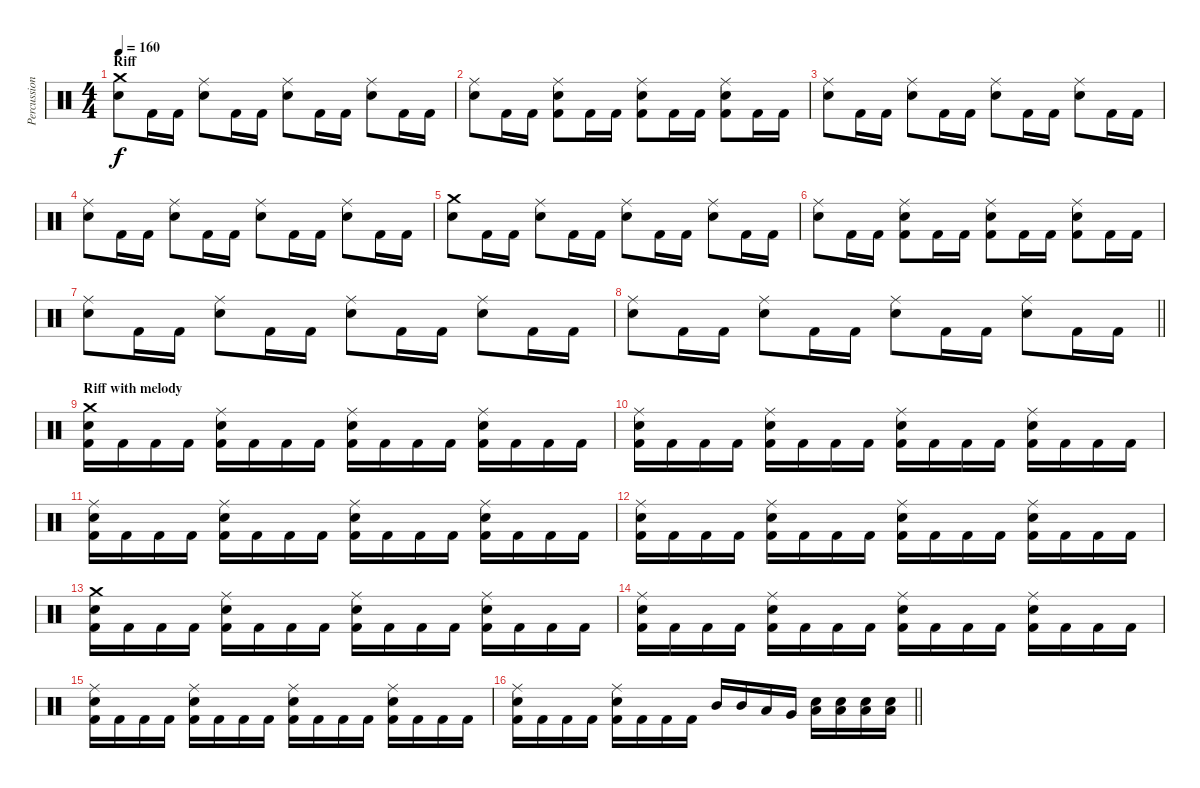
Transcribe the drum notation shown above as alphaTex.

\track ("Percussion" "Percussion") {instrument percussion}
\staff {score}
\articulation defaults
\ts (4 4)
\section ("" "Riff")
\tempo 160
\clef neutral
\ks c
("Crash medium (hit)" "Snare (hit) 2").8{dy f} "Kick (hit) 2".16 "Kick (hit) 2".16 ("Ride (middle)" "Snare (hit) 2").8 "Kick (hit) 2".16 "Kick (hit) 2".16 ("Ride (middle)" "Snare (hit) 2").8 "Kick (hit) 2".16 "Kick (hit) 2".16 ("Ride (middle)" "Snare (hit) 2").8 "Kick (hit) 2".16 "Kick (hit) 2".16 |
("Ride (middle)" "Snare (hit) 2").8 "Kick (hit) 2".16 "Kick (hit) 2".16 ("Ride (middle)" "Snare (hit) 2" "Kick (hit) 2").8 "Kick (hit) 2".16 "Kick (hit) 2".16 ("Ride (middle)" "Snare (hit) 2" "Kick (hit) 2").8 "Kick (hit) 2".16 "Kick (hit) 2".16 ("Ride (middle)" "Snare (hit) 2" "Kick (hit) 2").8 "Kick (hit) 2".16 "Kick (hit) 2".16 |
("Ride (middle)" "Snare (hit) 2").8 "Kick (hit) 2".16 "Kick (hit) 2".16 ("Ride (middle)" "Snare (hit) 2").8 "Kick (hit) 2".16 "Kick (hit) 2".16 ("Ride (middle)" "Snare (hit) 2").8 "Kick (hit) 2".16 "Kick (hit) 2".16 ("Ride (middle)" "Snare (hit) 2").8 "Kick (hit) 2".16 "Kick (hit) 2".16 |
("Ride (middle)" "Snare (hit) 2").8 "Kick (hit) 2".16 "Kick (hit) 2".16 ("Ride (middle)" "Snare (hit) 2").8 "Kick (hit) 2".16 "Kick (hit) 2".16 ("Ride (middle)" "Snare (hit) 2").8 "Kick (hit) 2".16 "Kick (hit) 2".16 ("Ride (middle)" "Snare (hit) 2").8 "Kick (hit) 2".16 "Kick (hit) 2".16 |
("Crash medium (hit)" "Snare (hit) 2").8 "Kick (hit) 2".16 "Kick (hit) 2".16 ("Ride (middle)" "Snare (hit) 2").8 "Kick (hit) 2".16 "Kick (hit) 2".16 ("Ride (middle)" "Snare (hit) 2").8 "Kick (hit) 2".16 "Kick (hit) 2".16 ("Ride (middle)" "Snare (hit) 2").8 "Kick (hit) 2".16 "Kick (hit) 2".16 |
("Ride (middle)" "Snare (hit) 2").8 "Kick (hit) 2".16 "Kick (hit) 2".16 ("Ride (middle)" "Snare (hit) 2" "Kick (hit) 2").8 "Kick (hit) 2".16 "Kick (hit) 2".16 ("Ride (middle)" "Snare (hit) 2" "Kick (hit) 2").8 "Kick (hit) 2".16 "Kick (hit) 2".16 ("Ride (middle)" "Snare (hit) 2" "Kick (hit) 2").8 "Kick (hit) 2".16 "Kick (hit) 2".16 |
("Ride (middle)" "Snare (hit) 2").8 "Kick (hit) 2".16 "Kick (hit) 2".16 ("Ride (middle)" "Snare (hit) 2").8 "Kick (hit) 2".16 "Kick (hit) 2".16 ("Ride (middle)" "Snare (hit) 2").8 "Kick (hit) 2".16 "Kick (hit) 2".16 ("Ride (middle)" "Snare (hit) 2").8 "Kick (hit) 2".16 "Kick (hit) 2".16 |
\barLineRight lightlight
("Ride (middle)" "Snare (hit) 2").8 "Kick (hit) 2".16 "Kick (hit) 2".16 ("Ride (middle)" "Snare (hit) 2").8 "Kick (hit) 2".16 "Kick (hit) 2".16 ("Ride (middle)" "Snare (hit) 2").8 "Kick (hit) 2".16 "Kick (hit) 2".16 ("Ride (middle)" "Snare (hit) 2").8 "Kick (hit) 2".16 "Kick (hit) 2".16 |
\section ("" "Riff with melody")
("Crash medium (hit)" "Snare (hit) 2" "Kick (hit) 2").16 "Kick (hit) 2".16 "Kick (hit) 2".16 "Kick (hit) 2".16 ("Ride (middle)" "Snare (hit) 2" "Kick (hit) 2").16 "Kick (hit) 2".16 "Kick (hit) 2".16 "Kick (hit) 2".16 ("Ride (middle)" "Snare (hit) 2" "Kick (hit) 2").16 "Kick (hit) 2".16 "Kick (hit) 2".16 "Kick (hit) 2".16 ("Ride (middle)" "Snare (hit) 2" "Kick (hit) 2").16 "Kick (hit) 2".16 "Kick (hit) 2".16 "Kick (hit) 2".16 |
("Ride (middle)" "Snare (hit) 2" "Kick (hit) 2").16 "Kick (hit) 2".16 "Kick (hit) 2".16 "Kick (hit) 2".16 ("Ride (middle)" "Snare (hit) 2" "Kick (hit) 2").16 "Kick (hit) 2".16 "Kick (hit) 2".16 "Kick (hit) 2".16 ("Ride (middle)" "Snare (hit) 2" "Kick (hit) 2").16 "Kick (hit) 2".16 "Kick (hit) 2".16 "Kick (hit) 2".16 ("Ride (middle)" "Snare (hit) 2" "Kick (hit) 2").16 "Kick (hit) 2".16 "Kick (hit) 2".16 "Kick (hit) 2".16 |
("Ride (middle)" "Snare (hit) 2" "Kick (hit) 2").16 "Kick (hit) 2".16 "Kick (hit) 2".16 "Kick (hit) 2".16 ("Ride (middle)" "Snare (hit) 2" "Kick (hit) 2").16 "Kick (hit) 2".16 "Kick (hit) 2".16 "Kick (hit) 2".16 ("Ride (middle)" "Snare (hit) 2" "Kick (hit) 2").16 "Kick (hit) 2".16 "Kick (hit) 2".16 "Kick (hit) 2".16 ("Ride (middle)" "Snare (hit) 2" "Kick (hit) 2").16 "Kick (hit) 2".16 "Kick (hit) 2".16 "Kick (hit) 2".16 |
("Ride (middle)" "Snare (hit) 2" "Kick (hit) 2").16 "Kick (hit) 2".16 "Kick (hit) 2".16 "Kick (hit) 2".16 ("Ride (middle)" "Snare (hit) 2" "Kick (hit) 2").16 "Kick (hit) 2".16 "Kick (hit) 2".16 "Kick (hit) 2".16 ("Ride (middle)" "Snare (hit) 2" "Kick (hit) 2").16 "Kick (hit) 2".16 "Kick (hit) 2".16 "Kick (hit) 2".16 ("Ride (middle)" "Snare (hit) 2" "Kick (hit) 2").16 "Kick (hit) 2".16 "Kick (hit) 2".16 "Kick (hit) 2".16 |
("Crash medium (hit)" "Snare (hit) 2" "Kick (hit) 2").16 "Kick (hit) 2".16 "Kick (hit) 2".16 "Kick (hit) 2".16 ("Ride (middle)" "Snare (hit) 2" "Kick (hit) 2").16 "Kick (hit) 2".16 "Kick (hit) 2".16 "Kick (hit) 2".16 ("Ride (middle)" "Snare (hit) 2" "Kick (hit) 2").16 "Kick (hit) 2".16 "Kick (hit) 2".16 "Kick (hit) 2".16 ("Ride (middle)" "Snare (hit) 2" "Kick (hit) 2").16 "Kick (hit) 2".16 "Kick (hit) 2".16 "Kick (hit) 2".16 |
("Ride (middle)" "Snare (hit) 2" "Kick (hit) 2").16 "Kick (hit) 2".16 "Kick (hit) 2".16 "Kick (hit) 2".16 ("Ride (middle)" "Snare (hit) 2" "Kick (hit) 2").16 "Kick (hit) 2".16 "Kick (hit) 2".16 "Kick (hit) 2".16 ("Ride (middle)" "Snare (hit) 2" "Kick (hit) 2").16 "Kick (hit) 2".16 "Kick (hit) 2".16 "Kick (hit) 2".16 ("Ride (middle)" "Snare (hit) 2" "Kick (hit) 2").16 "Kick (hit) 2".16 "Kick (hit) 2".16 "Kick (hit) 2".16 |
("Ride (middle)" "Snare (hit) 2" "Kick (hit) 2").16 "Kick (hit) 2".16 "Kick (hit) 2".16 "Kick (hit) 2".16 ("Ride (middle)" "Snare (hit) 2" "Kick (hit) 2").16 "Kick (hit) 2".16 "Kick (hit) 2".16 "Kick (hit) 2".16 ("Ride (middle)" "Snare (hit) 2" "Kick (hit) 2").16 "Kick (hit) 2".16 "Kick (hit) 2".16 "Kick (hit) 2".16 ("Ride (middle)" "Snare (hit) 2" "Kick (hit) 2").16 "Kick (hit) 2".16 "Kick (hit) 2".16 "Kick (hit) 2".16 |
\barLineRight lightlight
("Ride (middle)" "Snare (hit) 2" "Kick (hit) 2").16 "Kick (hit) 2".16 "Kick (hit) 2".16 "Kick (hit) 2".16 ("Ride (middle)" "Snare (hit) 2" "Kick (hit) 2").16 "Kick (hit) 2".16 "Kick (hit) 2".16 "Kick (hit) 2".16 "Mid Tom (hit)".16 "Mid Tom (hit)".16 "Low Tom (hit)".16 "Very Low Tom (hit)".16 ("Low Floor Tom (hit)" "Snare (hit) 2").16 ("Low Floor Tom (hit)" "Snare (hit) 2").16 ("Low Floor Tom (hit)" "Snare (hit) 2").16 ("Low Floor Tom (hit)" "Snare (hit) 2").16
